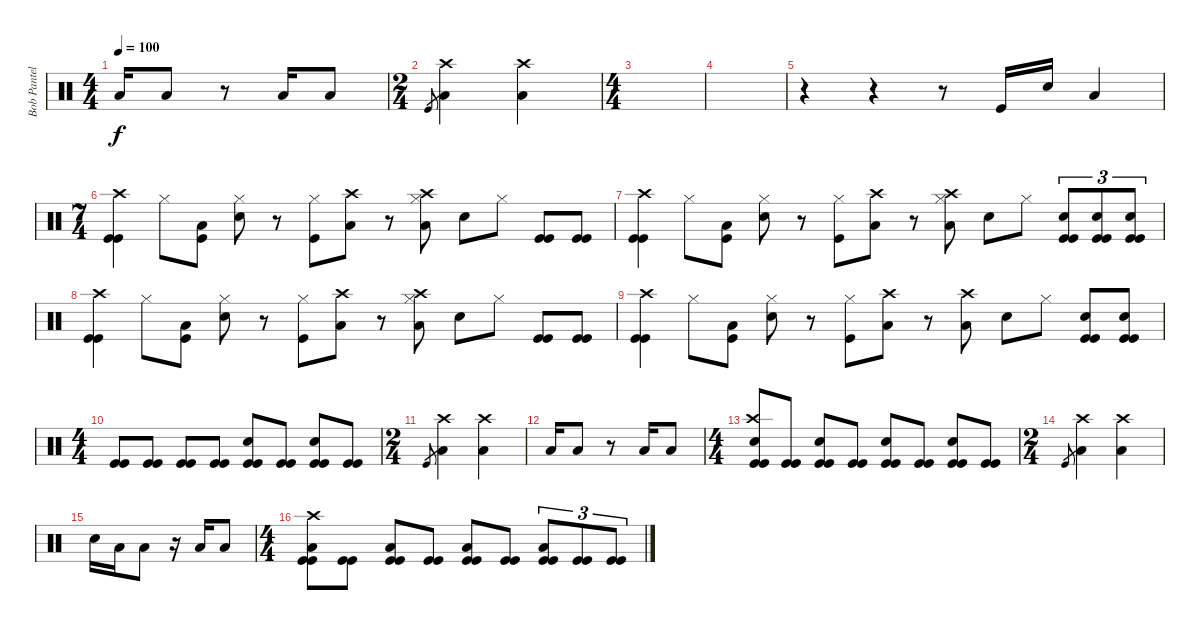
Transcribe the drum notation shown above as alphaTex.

\track ("Bob Pantella" "Bob Pantel") {instrument percussion}
\staff {score}
\articulation defaults
\ts (4 4)
\tempo 100
\clef neutral
\ks c "Low Floor Tom (hit)".16{dy f} "Low Floor Tom (hit)".8
r.8 "Low Floor Tom (hit)".16 "Low Floor Tom (hit)".8 |
\ts (2 4)
"Kick (hit)".8{gr} ("Crash high (hit)" "Low Floor Tom (hit)").4 ("Crash high (hit)" "Low Floor Tom (hit)").4 |
\ts (4 4)
|
|
r.4 r.4 r.8 "Kick (hit)".16 "Electric Snare (hit)".16 "Low Floor Tom (hit)".4 |
\ts (7 4)
("Crash high (hit)" "Kick (hit)" "Kick (hit)").4 "Hi-Hat (closed)".8 ("Low Floor Tom (hit)" "Kick (hit)").8 ("Hi-Hat (closed)" "Electric Snare (hit)").8 r.8 ("Hi-Hat (closed)" "Kick (hit)").8 ("Crash high (hit)" "Low Floor Tom (hit)").8 r.8 ("Crash high (hit)" "Hi-Hat (closed)" "Low Floor Tom (hit)").8 "Electric Snare (hit)".8 "Hi-Hat (closed)".8 ("Kick (hit)" "Kick (hit)").8 ("Kick (hit)" "Kick (hit)").8 |
("Crash high (hit)" "Kick (hit)" "Kick (hit)").4 "Hi-Hat (closed)".8 ("Low Floor Tom (hit)" "Kick (hit)").8 ("Hi-Hat (closed)" "Electric Snare (hit)").8 r.8 ("Hi-Hat (closed)" "Kick (hit)").8 ("Crash high (hit)" "Low Floor Tom (hit)").8 r.8 ("Crash high (hit)" "Hi-Hat (closed)" "Low Floor Tom (hit)").8 "Electric Snare (hit)".8 "Hi-Hat (closed)".8 ("Electric Snare (hit)" "Kick (hit)" "Kick (hit)").8{tu (3 2)} ("Electric Snare (hit)" "Kick (hit)" "Kick (hit)").8{tu (3 2)} ("Electric Snare (hit)" "Kick (hit)" "Kick (hit)").8{tu (3 2)} |
("Crash high (hit)" "Kick (hit)" "Kick (hit)").4 "Hi-Hat (closed)".8 ("Low Floor Tom (hit)" "Kick (hit)").8 ("Hi-Hat (closed)" "Electric Snare (hit)").8 r.8 ("Hi-Hat (closed)" "Kick (hit)").8 ("Crash high (hit)" "Low Floor Tom (hit)").8 r.8 ("Crash high (hit)" "Hi-Hat (closed)" "Low Floor Tom (hit)").8 "Electric Snare (hit)".8 "Hi-Hat (closed)".8 ("Kick (hit)" "Kick (hit)").8 ("Kick (hit)" "Kick (hit)").8 |
("Crash high (hit)" "Kick (hit)" "Kick (hit)").4 "Hi-Hat (closed)".8 ("Low Floor Tom (hit)" "Kick (hit)").8 ("Hi-Hat (closed)" "Electric Snare (hit)").8 r.8 ("Hi-Hat (closed)" "Kick (hit)").8 ("Crash high (hit)" "Low Floor Tom (hit)").8 r.8 ("Crash high (hit)" "Low Floor Tom (hit)").8 "Electric Snare (hit)".8 "Hi-Hat (closed)".8 ("Electric Snare (hit)" "Kick (hit)" "Kick (hit)").8 ("Electric Snare (hit)" "Kick (hit)" "Kick (hit)").8 |
\ts (4 4)
("Kick (hit)" "Kick (hit)").8 ("Kick (hit)" "Kick (hit)").8 ("Kick (hit)" "Kick (hit)").8 ("Kick (hit)" "Kick (hit)").8 ("Electric Snare (hit)" "Kick (hit)" "Kick (hit)").8 ("Kick (hit)" "Kick (hit)").8 ("Electric Snare (hit)" "Kick (hit)" "Kick (hit)").8 ("Kick (hit)" "Kick (hit)").8 |
\ts (2 4)
"Kick (hit)".8{gr} ("Crash high (hit)" "Low Floor Tom (hit)").4 ("Crash high (hit)" "Low Floor Tom (hit)").4 |
"Low Floor Tom (hit)".16 "Low Floor Tom (hit)".8 r.8 "Low Floor Tom (hit)".16 "Low Floor Tom (hit)".8 |
\ts (4 4)
("Crash high (hit)" "Electric Snare (hit)" "Kick (hit)" "Kick (hit)").8 ("Kick (hit)" "Kick (hit)").8 ("Electric Snare (hit)" "Kick (hit)" "Kick (hit)").8 ("Kick (hit)" "Kick (hit)").8 ("Electric Snare (hit)" "Kick (hit)" "Kick (hit)").8 ("Kick (hit)" "Kick (hit)").8 ("Electric Snare (hit)" "Kick (hit)" "Kick (hit)").8 ("Kick (hit)" "Kick (hit)").8 |
\ts (2 4)
"Kick (hit)".8{gr} ("Crash high (hit)" "Low Floor Tom (hit)").4 ("Crash high (hit)" "Low Floor Tom (hit)").4 |
"Electric Snare (hit)".16 "Low Floor Tom (hit)".16 "Low Floor Tom (hit)".8 r.16 "Low Floor Tom (hit)".16 "Low Floor Tom (hit)".8 |
\ts (4 4)
("Crash high (hit)" "Low Floor Tom (hit)" "Kick (hit)" "Kick (hit)").8 ("Kick (hit)" "Kick (hit)").8 ("Low Floor Tom (hit)" "Kick (hit)" "Kick (hit)").8 ("Kick (hit)" "Kick (hit)").8 ("Low Floor Tom (hit)" "Kick (hit)" "Kick (hit)").8 ("Kick (hit)" "Kick (hit)").8 ("Low Floor Tom (hit)" "Kick (hit)" "Kick (hit)").8{tu (3 2)} ("Kick (hit)" "Kick (hit)").8{tu (3 2)} ("Kick (hit)" "Kick (hit)").8{tu (3 2)}
